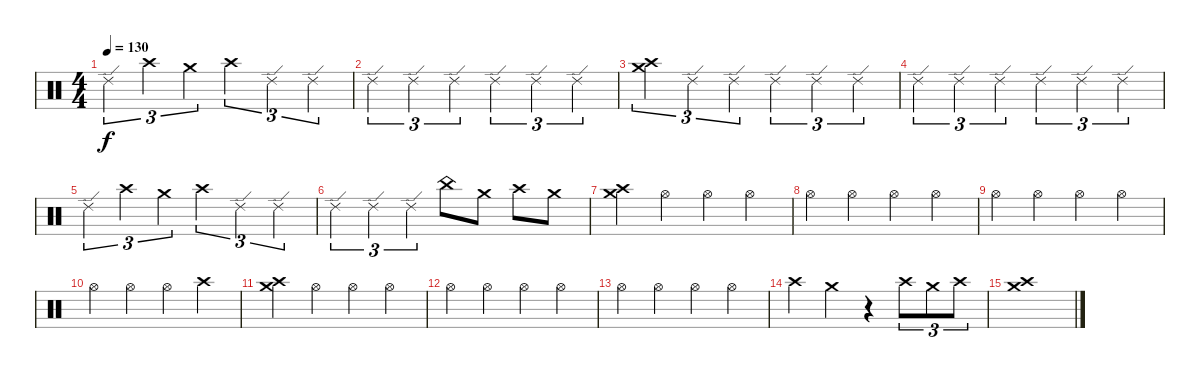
\track "" {instrument percussion}
\staff {score}
\articulation defaults
\ts (4 4)
\tempo 130
\clef neutral
\ks c "Ride (edge) 2".4{tu (3 2) dy f} "Crash high (hit)".4{tu (3 2)} "Crash medium (hit)".4{tu (3 2)} "Crash high (hit)".4{tu (3 2)} "Ride (edge) 2".4{tu (3 2)} "Ride (edge) 2".4{tu (3 2)}
|
"Ride (edge) 2".4{tu (3 2)} "Ride (edge) 2".4{tu (3 2)} "Ride (edge) 2".4{tu (3 2)} "Ride (edge) 2".4{tu (3 2)} "Ride (edge) 2".4{tu (3 2)} "Ride (edge) 2".4{tu (3 2)} |
("Crash medium (hit)" "Crash high (hit)").4{tu (3 2)} "Ride (edge) 2".4{tu (3 2)} "Ride (edge) 2".4{tu (3 2)} "Ride (edge) 2".4{tu (3 2)} "Ride (edge) 2".4{tu (3 2)} "Ride (edge) 2".4{tu (3 2)} |
"Ride (edge) 2".4{tu (3 2)} "Ride (edge) 2".4{tu (3 2)} "Ride (edge) 2".4{tu (3 2)} "Ride (edge) 2".4{tu (3 2)} "Ride (edge) 2".4{tu (3 2)} "Ride (edge) 2".4{tu (3 2)} |
"Ride (edge) 2".4{tu (3 2)} "Crash high (hit)".4{tu (3 2)} "Crash medium (hit)".4{tu (3 2)} "Crash high (hit)".4{tu (3 2)} "Ride (edge) 2".4{tu (3 2)} "Ride (edge) 2".4{tu (3 2)} |
"Ride (edge) 2".4{tu (3 2)} "Ride (edge) 2".4{tu (3 2)} "Ride (edge) 2".4{tu (3 2)} "China (hit)".8 "Crash medium (hit)".8 "Crash high (hit)".8 "Crash medium (hit)".8 |
("Crash medium (hit)" "Crash high (hit)").4 "Hi-Hat (open)".4 "Hi-Hat (open)".4 "Hi-Hat (open)".4 |
"Hi-Hat (open)".4 "Hi-Hat (open)".4 "Hi-Hat (open)".4 "Hi-Hat (open)".4 |
"Hi-Hat (open)".4 "Hi-Hat (open)".4 "Hi-Hat (open)".4 "Hi-Hat (open)".4 |
"Hi-Hat (open)".4 "Hi-Hat (open)".4 "Hi-Hat (open)".4 "Crash high (hit)".4 |
("Crash medium (hit)" "Crash high (hit)").4 "Hi-Hat (open)".4 "Hi-Hat (open)".4 "Hi-Hat (open)".4 |
"Hi-Hat (open)".4 "Hi-Hat (open)".4 "Hi-Hat (open)".4 "Hi-Hat (open)".4 |
"Hi-Hat (open)".4 "Hi-Hat (open)".4 "Hi-Hat (open)".4 "Hi-Hat (open)".4 |
"Crash high (hit)".4 "Crash medium (hit)".4 r.4 "Crash high (hit)".8{tu (3 2)} "Crash medium (hit)".8{tu (3 2)} "Crash high (hit)".8{tu (3 2)} |
("Crash medium (hit)" "Crash high (hit)").1
